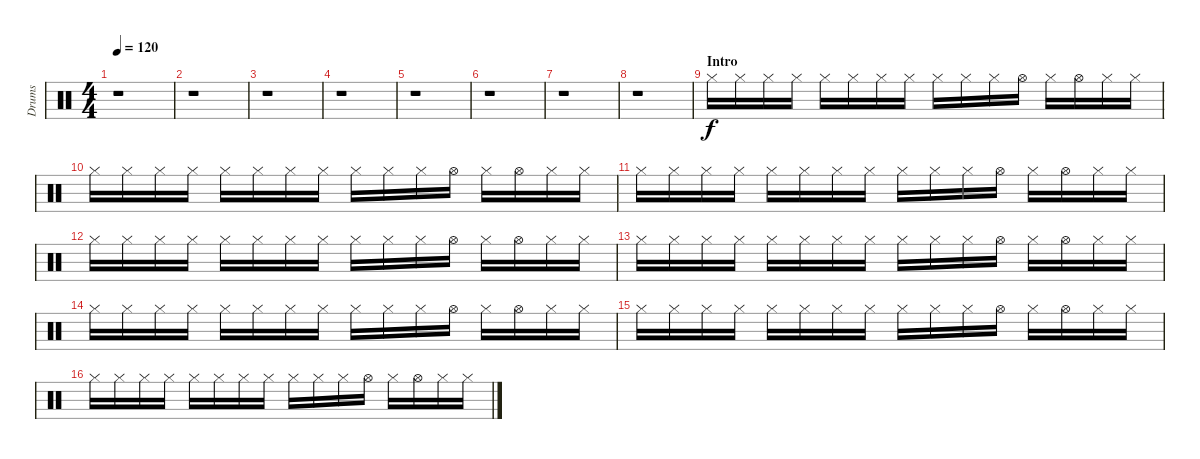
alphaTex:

\track ("Drums" "Drums") {instrument percussion}
\staff {score}
\articulation defaults
\ts (4 4)
\tempo 120
\clef neutral
\ks c
r.1{dy f} |
r.1 |
r.1 |
r.1 |
r.1 |
r.1 |
r.1 |
r.1 |
\section ("" "Intro")
"Hi-Hat (closed)".16{volume 10} "Hi-Hat (closed)".16 "Hi-Hat (closed)".16 "Hi-Hat (closed)".16 "Hi-Hat (closed)".16 "Hi-Hat (closed)".16 "Hi-Hat (closed)".16 "Hi-Hat (closed)".16 "Hi-Hat (closed)".16 "Hi-Hat (closed)".16 "Hi-Hat (closed)".16 "Hi-Hat (open)".16 "Hi-Hat (closed)".16 "Hi-Hat (open)".16 "Hi-Hat (closed)".16 "Hi-Hat (closed)".16 |
"Hi-Hat (closed)".16 "Hi-Hat (closed)".16 "Hi-Hat (closed)".16 "Hi-Hat (closed)".16 "Hi-Hat (closed)".16 "Hi-Hat (closed)".16 "Hi-Hat (closed)".16 "Hi-Hat (closed)".16 "Hi-Hat (closed)".16 "Hi-Hat (closed)".16 "Hi-Hat (closed)".16 "Hi-Hat (open)".16 "Hi-Hat (closed)".16 "Hi-Hat (open)".16 "Hi-Hat (closed)".16 "Hi-Hat (closed)".16 |
"Hi-Hat (closed)".16 "Hi-Hat (closed)".16 "Hi-Hat (closed)".16 "Hi-Hat (closed)".16 "Hi-Hat (closed)".16 "Hi-Hat (closed)".16 "Hi-Hat (closed)".16 "Hi-Hat (closed)".16 "Hi-Hat (closed)".16 "Hi-Hat (closed)".16 "Hi-Hat (closed)".16 "Hi-Hat (open)".16 "Hi-Hat (closed)".16 "Hi-Hat (open)".16 "Hi-Hat (closed)".16 "Hi-Hat (closed)".16 |
"Hi-Hat (closed)".16 "Hi-Hat (closed)".16 "Hi-Hat (closed)".16 "Hi-Hat (closed)".16 "Hi-Hat (closed)".16 "Hi-Hat (closed)".16 "Hi-Hat (closed)".16 "Hi-Hat (closed)".16 "Hi-Hat (closed)".16 "Hi-Hat (closed)".16 "Hi-Hat (closed)".16 "Hi-Hat (open)".16 "Hi-Hat (closed)".16 "Hi-Hat (open)".16 "Hi-Hat (closed)".16 "Hi-Hat (closed)".16 |
"Hi-Hat (closed)".16 "Hi-Hat (closed)".16 "Hi-Hat (closed)".16 "Hi-Hat (closed)".16 "Hi-Hat (closed)".16 "Hi-Hat (closed)".16 "Hi-Hat (closed)".16 "Hi-Hat (closed)".16 "Hi-Hat (closed)".16 "Hi-Hat (closed)".16 "Hi-Hat (closed)".16 "Hi-Hat (open)".16 "Hi-Hat (closed)".16 "Hi-Hat (open)".16 "Hi-Hat (closed)".16 "Hi-Hat (closed)".16 |
"Hi-Hat (closed)".16 "Hi-Hat (closed)".16 "Hi-Hat (closed)".16 "Hi-Hat (closed)".16 "Hi-Hat (closed)".16 "Hi-Hat (closed)".16 "Hi-Hat (closed)".16 "Hi-Hat (closed)".16 "Hi-Hat (closed)".16 "Hi-Hat (closed)".16 "Hi-Hat (closed)".16 "Hi-Hat (open)".16 "Hi-Hat (closed)".16 "Hi-Hat (open)".16 "Hi-Hat (closed)".16 "Hi-Hat (closed)".16 |
"Hi-Hat (closed)".16 "Hi-Hat (closed)".16 "Hi-Hat (closed)".16 "Hi-Hat (closed)".16 "Hi-Hat (closed)".16 "Hi-Hat (closed)".16 "Hi-Hat (closed)".16 "Hi-Hat (closed)".16 "Hi-Hat (closed)".16 "Hi-Hat (closed)".16 "Hi-Hat (closed)".16 "Hi-Hat (open)".16 "Hi-Hat (closed)".16 "Hi-Hat (open)".16 "Hi-Hat (closed)".16 "Hi-Hat (closed)".16 |
"Hi-Hat (closed)".16 "Hi-Hat (closed)".16 "Hi-Hat (closed)".16 "Hi-Hat (closed)".16 "Hi-Hat (closed)".16 "Hi-Hat (closed)".16 "Hi-Hat (closed)".16 "Hi-Hat (closed)".16 "Hi-Hat (closed)".16 "Hi-Hat (closed)".16 "Hi-Hat (closed)".16 "Hi-Hat (open)".16 "Hi-Hat (closed)".16 "Hi-Hat (open)".16 "Hi-Hat (closed)".16 "Hi-Hat (closed)".16
